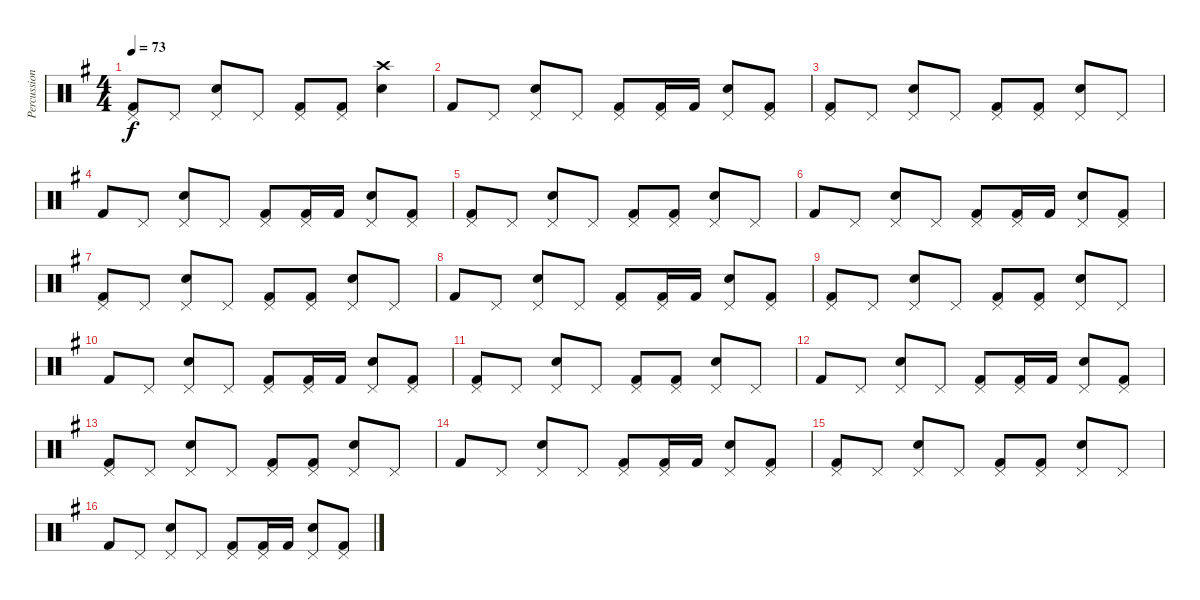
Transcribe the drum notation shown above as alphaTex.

\track ("Percussions" "Percussion") {instrument percussion}
\staff {score}
\articulation defaults
\ts (4 4)
\tempo 73
\clef neutral
\ks g
("Pedal Hi-Hat (hit)" "Kick (hit) 2").8{dy f} "Pedal Hi-Hat (hit)".8 ("Pedal Hi-Hat (hit)" "Snare (hit) 2").8 "Pedal Hi-Hat (hit)".8 ("Pedal Hi-Hat (hit)" "Kick (hit) 2").8 ("Pedal Hi-Hat (hit)" "Kick (hit) 2").8 ("Crash high (hit)" "Snare (hit) 2").4 |
"Kick (hit) 2".8 "Pedal Hi-Hat (hit)".8 ("Pedal Hi-Hat (hit)" "Snare (hit) 2").8 "Pedal Hi-Hat (hit)".8 ("Pedal Hi-Hat (hit)" "Kick (hit) 2").8 ("Pedal Hi-Hat (hit)" "Kick (hit) 2").16 "Kick (hit) 2".16 ("Pedal Hi-Hat (hit)" "Snare (hit) 2").8 ("Pedal Hi-Hat (hit)" "Kick (hit) 2").8 |
("Pedal Hi-Hat (hit)" "Kick (hit) 2").8 "Pedal Hi-Hat (hit)".8 ("Pedal Hi-Hat (hit)" "Snare (hit) 2").8 "Pedal Hi-Hat (hit)".8 ("Pedal Hi-Hat (hit)" "Kick (hit) 2").8 ("Pedal Hi-Hat (hit)" "Kick (hit) 2").8 ("Pedal Hi-Hat (hit)" "Snare (hit) 2").8 "Pedal Hi-Hat (hit)".8 |
"Kick (hit) 2".8 "Pedal Hi-Hat (hit)".8 ("Pedal Hi-Hat (hit)" "Snare (hit) 2").8 "Pedal Hi-Hat (hit)".8 ("Pedal Hi-Hat (hit)" "Kick (hit) 2").8 ("Pedal Hi-Hat (hit)" "Kick (hit) 2").16 "Kick (hit) 2".16 ("Pedal Hi-Hat (hit)" "Snare (hit) 2").8 ("Pedal Hi-Hat (hit)" "Kick (hit) 2").8 |
("Pedal Hi-Hat (hit)" "Kick (hit) 2").8 "Pedal Hi-Hat (hit)".8 ("Pedal Hi-Hat (hit)" "Snare (hit) 2").8 "Pedal Hi-Hat (hit)".8 ("Pedal Hi-Hat (hit)" "Kick (hit) 2").8 ("Pedal Hi-Hat (hit)" "Kick (hit) 2").8 ("Pedal Hi-Hat (hit)" "Snare (hit) 2").8 "Pedal Hi-Hat (hit)".8 |
"Kick (hit) 2".8 "Pedal Hi-Hat (hit)".8 ("Pedal Hi-Hat (hit)" "Snare (hit) 2").8 "Pedal Hi-Hat (hit)".8 ("Pedal Hi-Hat (hit)" "Kick (hit) 2").8 ("Pedal Hi-Hat (hit)" "Kick (hit) 2").16 "Kick (hit) 2".16 ("Pedal Hi-Hat (hit)" "Snare (hit) 2").8 ("Pedal Hi-Hat (hit)" "Kick (hit) 2").8 |
("Pedal Hi-Hat (hit)" "Kick (hit) 2").8 "Pedal Hi-Hat (hit)".8 ("Pedal Hi-Hat (hit)" "Snare (hit) 2").8 "Pedal Hi-Hat (hit)".8 ("Pedal Hi-Hat (hit)" "Kick (hit) 2").8 ("Pedal Hi-Hat (hit)" "Kick (hit) 2").8 ("Pedal Hi-Hat (hit)" "Snare (hit) 2").8 "Pedal Hi-Hat (hit)".8 |
"Kick (hit) 2".8 "Pedal Hi-Hat (hit)".8 ("Pedal Hi-Hat (hit)" "Snare (hit) 2").8 "Pedal Hi-Hat (hit)".8 ("Pedal Hi-Hat (hit)" "Kick (hit) 2").8 ("Pedal Hi-Hat (hit)" "Kick (hit) 2").16 "Kick (hit) 2".16 ("Pedal Hi-Hat (hit)" "Snare (hit) 2").8 ("Pedal Hi-Hat (hit)" "Kick (hit) 2").8 |
("Pedal Hi-Hat (hit)" "Kick (hit) 2").8 "Pedal Hi-Hat (hit)".8 ("Pedal Hi-Hat (hit)" "Snare (hit) 2").8 "Pedal Hi-Hat (hit)".8 ("Pedal Hi-Hat (hit)" "Kick (hit) 2").8 ("Pedal Hi-Hat (hit)" "Kick (hit) 2").8 ("Pedal Hi-Hat (hit)" "Snare (hit) 2").8 "Pedal Hi-Hat (hit)".8 |
"Kick (hit) 2".8 "Pedal Hi-Hat (hit)".8 ("Pedal Hi-Hat (hit)" "Snare (hit) 2").8 "Pedal Hi-Hat (hit)".8 ("Pedal Hi-Hat (hit)" "Kick (hit) 2").8 ("Pedal Hi-Hat (hit)" "Kick (hit) 2").16 "Kick (hit) 2".16 ("Pedal Hi-Hat (hit)" "Snare (hit) 2").8 ("Pedal Hi-Hat (hit)" "Kick (hit) 2").8 |
("Pedal Hi-Hat (hit)" "Kick (hit) 2").8 "Pedal Hi-Hat (hit)".8 ("Pedal Hi-Hat (hit)" "Snare (hit) 2").8 "Pedal Hi-Hat (hit)".8 ("Pedal Hi-Hat (hit)" "Kick (hit) 2").8 ("Pedal Hi-Hat (hit)" "Kick (hit) 2").8 ("Pedal Hi-Hat (hit)" "Snare (hit) 2").8 "Pedal Hi-Hat (hit)".8 |
"Kick (hit) 2".8 "Pedal Hi-Hat (hit)".8 ("Pedal Hi-Hat (hit)" "Snare (hit) 2").8 "Pedal Hi-Hat (hit)".8 ("Pedal Hi-Hat (hit)" "Kick (hit) 2").8 ("Pedal Hi-Hat (hit)" "Kick (hit) 2").16 "Kick (hit) 2".16 ("Pedal Hi-Hat (hit)" "Snare (hit) 2").8 ("Pedal Hi-Hat (hit)" "Kick (hit) 2").8 |
("Pedal Hi-Hat (hit)" "Kick (hit) 2").8 "Pedal Hi-Hat (hit)".8 ("Pedal Hi-Hat (hit)" "Snare (hit) 2").8 "Pedal Hi-Hat (hit)".8 ("Pedal Hi-Hat (hit)" "Kick (hit) 2").8 ("Pedal Hi-Hat (hit)" "Kick (hit) 2").8 ("Pedal Hi-Hat (hit)" "Snare (hit) 2").8 "Pedal Hi-Hat (hit)".8 |
"Kick (hit) 2".8 "Pedal Hi-Hat (hit)".8 ("Pedal Hi-Hat (hit)" "Snare (hit) 2").8 "Pedal Hi-Hat (hit)".8 ("Pedal Hi-Hat (hit)" "Kick (hit) 2").8 ("Pedal Hi-Hat (hit)" "Kick (hit) 2").16 "Kick (hit) 2".16 ("Pedal Hi-Hat (hit)" "Snare (hit) 2").8 ("Pedal Hi-Hat (hit)" "Kick (hit) 2").8 |
("Pedal Hi-Hat (hit)" "Kick (hit) 2").8 "Pedal Hi-Hat (hit)".8 ("Pedal Hi-Hat (hit)" "Snare (hit) 2").8 "Pedal Hi-Hat (hit)".8 ("Pedal Hi-Hat (hit)" "Kick (hit) 2").8 ("Pedal Hi-Hat (hit)" "Kick (hit) 2").8 ("Pedal Hi-Hat (hit)" "Snare (hit) 2").8 "Pedal Hi-Hat (hit)".8 |
"Kick (hit) 2".8 "Pedal Hi-Hat (hit)".8 ("Pedal Hi-Hat (hit)" "Snare (hit) 2").8 "Pedal Hi-Hat (hit)".8 ("Pedal Hi-Hat (hit)" "Kick (hit) 2").8 ("Pedal Hi-Hat (hit)" "Kick (hit) 2").16 "Kick (hit) 2".16 ("Pedal Hi-Hat (hit)" "Snare (hit) 2").8 ("Pedal Hi-Hat (hit)" "Kick (hit) 2").8
